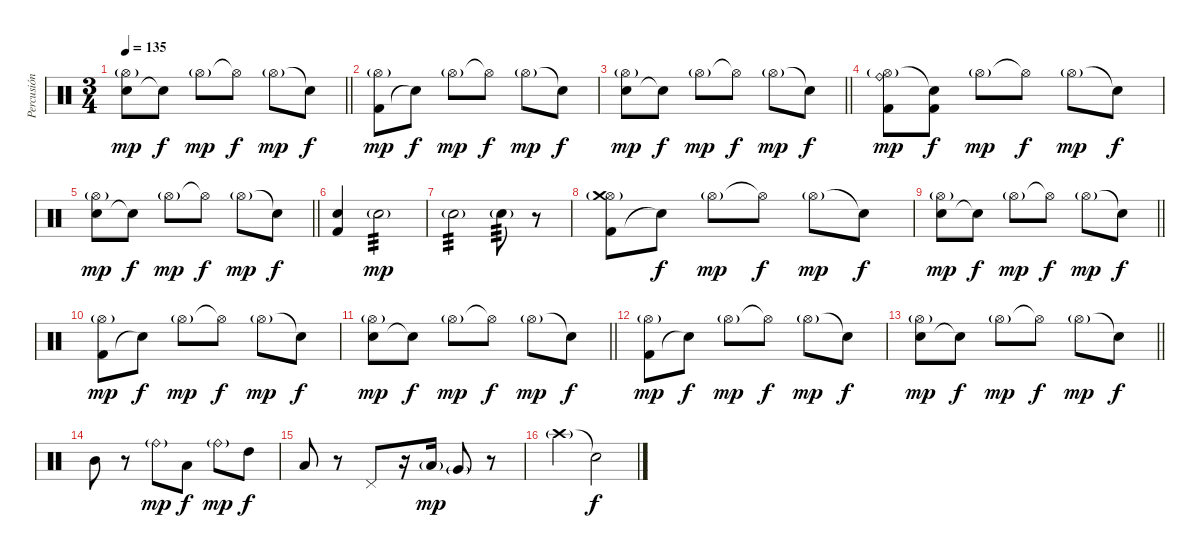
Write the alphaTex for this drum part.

\track ("Percusión" "Percusión") {instrument percussion}
\staff {score}
\articulation defaults
\ts (3 4)
\tempo 135
\clef neutral
\barLineRight lightlight
\ks c
("Electric Snare (hit)" "Hi-Hat (open)"{g}).8{dy mp} "Snare (hit)"{t}.8{dy f} "Hi-Hat (open)"{g}.8{dy mp} "Hi-Hat (open)"{t}.8{dy f} "Hi-Hat (open)"{g}.8{dy mp} "Snare (hit)"{t}.8{dy f} |
("Kick (hit) 2" "Hi-Hat (open)"{g}).8{dy mp} "Snare (hit)"{t}.8{dy f} "Hi-Hat (open)"{g}.8{dy mp} "Hi-Hat (open)"{t}.8{dy f} "Hi-Hat (open)"{g}.8{dy mp} "Snare (hit)"{t}.8{dy f} |
\barLineRight lightlight
("Electric Snare (hit)" "Hi-Hat (open)"{g}).8{dy mp} "Snare (hit)"{t}.8{dy f} "Hi-Hat (open)"{g}.8{dy mp} "Hi-Hat (open)"{t}.8{dy f} "Hi-Hat (open)"{g}.8{dy mp} "Snare (hit)"{t}.8{dy f} |
("Kick (hit) 2" "Hi-Hat (open)"{g} "Ride (bell)").8{dy mp} ("Kick (hit) 2" "Snare (hit)"{t}).8{dy f} "Hi-Hat (open)"{g}.8{dy mp} "Hi-Hat (open)"{t}.8{dy f} "Hi-Hat (open)"{g}.8{dy mp} "Snare (hit)"{t}.8{dy f} |
\barLineRight lightlight
("Electric Snare (hit)" "Hi-Hat (open)"{g}).8{dy mp} "Snare (hit)"{t}.8{dy f} "Hi-Hat (open)"{g}.8{dy mp} "Hi-Hat (open)"{t}.8{dy f} "Hi-Hat (open)"{g}.8{dy mp} "Snare (hit)"{t}.8{dy f} |
("Kick (hit) 2" "Electric Snare (hit)").4 "Electric Snare (hit)"{g}.2{tp 3 dy mp} |
"Electric Snare (hit)"{g}.2{tp 3} "Electric Snare (hit)"{g}.8{tp 3} r.8 |
("Kick (hit) 2" "Hi-Hat (open)"{g} "Crash medium (hit)"{g}).8 "Snare (hit)"{t}.8{dy f} "Hi-Hat (open)"{g}.8{dy mp} "Hi-Hat (open)"{t}.8{dy f} "Hi-Hat (open)"{g}.8{dy mp} "Snare (hit)"{t}.8{dy f} |
\barLineRight lightlight
("Electric Snare (hit)" "Hi-Hat (open)"{g}).8{dy mp} "Snare (hit)"{t}.8{dy f} "Hi-Hat (open)"{g}.8{dy mp} "Hi-Hat (open)"{t}.8{dy f} "Hi-Hat (open)"{g}.8{dy mp} "Snare (hit)"{t}.8{dy f} |
("Kick (hit) 2" "Hi-Hat (open)"{g}).8{dy mp} "Snare (hit)"{t}.8{dy f} "Hi-Hat (open)"{g}.8{dy mp} "Hi-Hat (open)"{t}.8{dy f} "Hi-Hat (open)"{g}.8{dy mp} "Snare (hit)"{t}.8{dy f} |
\barLineRight lightlight
("Electric Snare (hit)" "Hi-Hat (open)"{g}).8{dy mp} "Snare (hit)"{t}.8{dy f} "Hi-Hat (open)"{g}.8{dy mp} "Hi-Hat (open)"{t}.8{dy f} "Hi-Hat (open)"{g}.8{dy mp} "Snare (hit)"{t}.8{dy f} |
("Kick (hit) 2" "Hi-Hat (open)"{g}).8{dy mp} "Snare (hit)"{t}.8{dy f} "Hi-Hat (open)"{g}.8{dy mp} "Hi-Hat (open)"{t}.8{dy f} "Hi-Hat (open)"{g}.8{dy mp} "Snare (hit)"{t}.8{dy f} |
\barLineRight lightlight
("Electric Snare (hit)" "Hi-Hat (open)"{g}).8{dy mp} "Snare (hit)"{t}.8{dy f} "Hi-Hat (open)"{g}.8{dy mp} "Hi-Hat (open)"{t}.8{dy f} "Hi-Hat (open)"{g}.8{dy mp} "Snare (hit)"{t}.8{dy f} |
"Mid Tom (hit)".8 r.8 "Ride (bell)"{g}.8{dy mp} "Low Tom (hit)".8{dy f} "Ride (bell)"{g}.8{dy mp} "High Tom (hit)".8{dy f} |
"Low Tom (hit)".8 r.8 "Pedal Hi-Hat (hit)".8 r.16 "Low Tom (hit)"{g}.16{dy mp} "Very Low Tom (hit)"{g}.8 r.8 |
"Crash high (hit)"{g}.4 "Snare (hit)"{t}.2{dy f}
